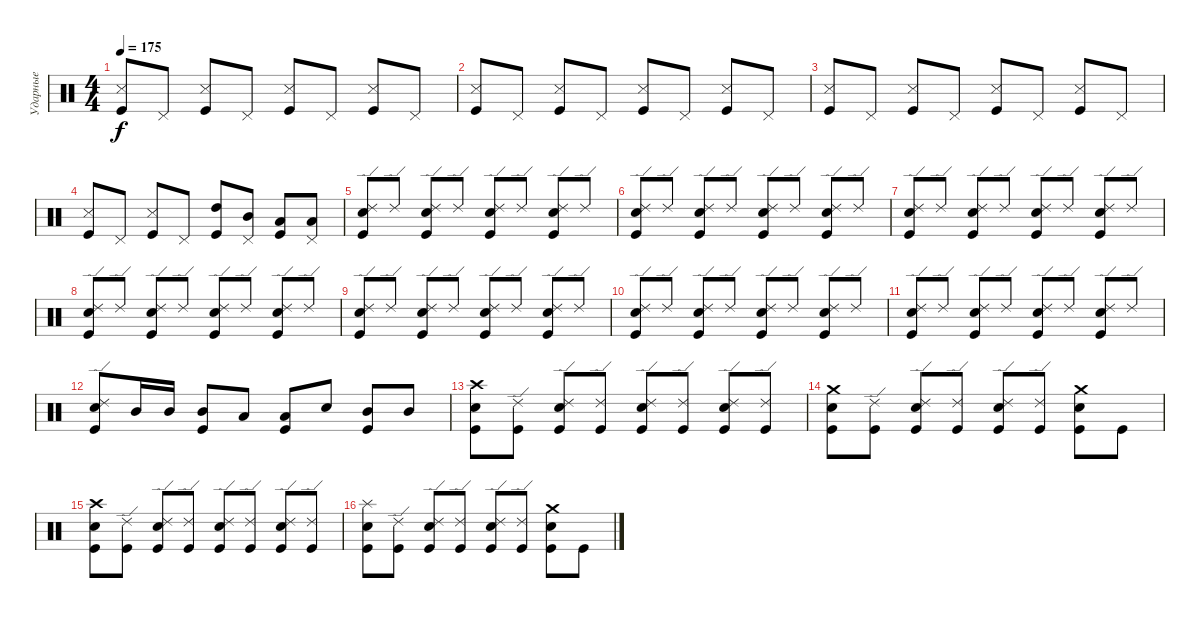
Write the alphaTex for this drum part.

\track ("Ударные" "Ударные") {instrument percussion}
\staff {score}
\articulation defaults
\ts (4 4)
\tempo 175
\clef neutral
\ks c
("Snare (side stick) 3" "Kick (hit)").8{dy f} "Pedal Hi-Hat (hit)".8 ("Snare (side stick) 3" "Kick (hit)").8 "Pedal Hi-Hat (hit)".8 ("Snare (side stick) 3" "Kick (hit)").8 "Pedal Hi-Hat (hit)".8 ("Snare (side stick) 3" "Kick (hit)").8 "Pedal Hi-Hat (hit)".8 |
("Snare (side stick) 3" "Kick (hit)").8 "Pedal Hi-Hat (hit)".8 ("Snare (side stick) 3" "Kick (hit)").8 "Pedal Hi-Hat (hit)".8 ("Snare (side stick) 3" "Kick (hit)").8 "Pedal Hi-Hat (hit)".8 ("Snare (side stick) 3" "Kick (hit)").8 "Pedal Hi-Hat (hit)".8 |
("Snare (side stick) 3" "Kick (hit)").8 "Pedal Hi-Hat (hit)".8 ("Snare (side stick) 3" "Kick (hit)").8 "Pedal Hi-Hat (hit)".8 ("Snare (side stick) 3" "Kick (hit)").8 "Pedal Hi-Hat (hit)".8 ("Snare (side stick) 3" "Kick (hit)").8 "Pedal Hi-Hat (hit)".8 |
("Snare (side stick) 3" "Kick (hit)").8 "Pedal Hi-Hat (hit)".8 ("Snare (side stick) 3" "Kick (hit)").8 "Pedal Hi-Hat (hit)".8 ("High Tom (hit)" "Kick (hit)").8 ("Pedal Hi-Hat (hit)" "Mid Tom (hit)").8 ("Low Tom (hit)" "Kick (hit)").8 ("Pedal Hi-Hat (hit)" "Low Tom (hit)").8 |
("Ride (edge) 2" "Snare (hit) 2" "Kick (hit)").8 "Ride (edge) 2".8 ("Ride (edge) 2" "Snare (hit) 2" "Kick (hit)").8 "Ride (edge) 2".8 ("Ride (edge) 2" "Snare (hit) 2" "Kick (hit)").8 "Ride (edge) 2".8 ("Ride (edge) 2" "Snare (hit) 2" "Kick (hit)").8 "Ride (edge) 2".8 |
("Ride (edge) 2" "Snare (hit) 2" "Kick (hit)").8 "Ride (edge) 2".8 ("Ride (edge) 2" "Snare (hit) 2" "Kick (hit)").8 "Ride (edge) 2".8 ("Ride (edge) 2" "Snare (hit) 2" "Kick (hit)").8 "Ride (edge) 2".8 ("Ride (edge) 2" "Snare (hit) 2" "Kick (hit)").8 "Ride (edge) 2".8 |
("Ride (edge) 2" "Snare (hit) 2" "Kick (hit)").8 "Ride (edge) 2".8 ("Ride (edge) 2" "Snare (hit) 2" "Kick (hit)").8 "Ride (edge) 2".8 ("Ride (edge) 2" "Snare (hit) 2" "Kick (hit)").8 "Ride (edge) 2".8 ("Ride (edge) 2" "Snare (hit) 2" "Kick (hit)").8 "Ride (edge) 2".8 |
("Ride (edge) 2" "Snare (hit) 2" "Kick (hit)").8 "Ride (edge) 2".8 ("Ride (edge) 2" "Snare (hit) 2" "Kick (hit)").8 "Ride (edge) 2".8 ("Ride (edge) 2" "Snare (hit) 2" "Kick (hit)").8 "Ride (edge) 2".8 ("Ride (edge) 2" "Snare (hit) 2" "Kick (hit)").8 "Ride (edge) 2".8 |
("Ride (edge) 2" "Snare (hit) 2" "Kick (hit)").8 "Ride (edge) 2".8 ("Ride (edge) 2" "Snare (hit) 2" "Kick (hit)").8 "Ride (edge) 2".8 ("Ride (edge) 2" "Snare (hit) 2" "Kick (hit)").8 "Ride (edge) 2".8 ("Ride (edge) 2" "Snare (hit) 2" "Kick (hit)").8 "Ride (edge) 2".8 |
("Ride (edge) 2" "Snare (hit) 2" "Kick (hit)").8 "Ride (edge) 2".8 ("Ride (edge) 2" "Snare (hit) 2" "Kick (hit)").8 "Ride (edge) 2".8 ("Ride (edge) 2" "Snare (hit) 2" "Kick (hit)").8 "Ride (edge) 2".8 ("Ride (edge) 2" "Snare (hit) 2" "Kick (hit)").8 "Ride (edge) 2".8 |
("Ride (edge) 2" "Snare (hit) 2" "Kick (hit)").8 "Ride (edge) 2".8 ("Ride (edge) 2" "Snare (hit) 2" "Kick (hit)").8 "Ride (edge) 2".8 ("Ride (edge) 2" "Snare (hit) 2" "Kick (hit)").8 "Ride (edge) 2".8 ("Ride (edge) 2" "Snare (hit) 2" "Kick (hit)").8 "Ride (edge) 2".8 |
("Ride (edge) 2" "Snare (hit) 2" "Kick (hit)").8 "Mid Tom (hit)".16 "Mid Tom (hit)".16 ("Mid Tom (hit)" "Kick (hit)").8 "Low Tom (hit)".8 ("Low Tom (hit)" "Kick (hit)").8 "Snare (hit) 2".8 ("Mid Tom (hit)" "Kick (hit)").8 "Mid Tom (hit)".8 |
("Crash high (hit)" "Snare (hit) 2" "Kick (hit)").8 ("Ride (edge) 2" "Kick (hit)").8 ("Ride (edge) 2" "Snare (hit) 2" "Kick (hit)").8 ("Ride (edge) 2" "Kick (hit)").8 ("Ride (edge) 2" "Snare (hit) 2" "Kick (hit)").8 ("Ride (edge) 2" "Kick (hit)").8 ("Ride (edge) 2" "Snare (hit) 2" "Kick (hit)").8 ("Ride (edge) 2" "Kick (hit)").8 |
("Crash medium (hit)" "Snare (hit) 2" "Kick (hit)").8 ("Ride (edge) 2" "Kick (hit)").8 ("Ride (edge) 2" "Snare (hit) 2" "Kick (hit)").8 ("Ride (edge) 2" "Kick (hit)").8 ("Ride (edge) 2" "Snare (hit) 2" "Kick (hit)").8 ("Ride (edge) 2" "Kick (hit)").8 ("Crash medium (hit)" "Snare (hit) 2" "Kick (hit)").8 "Kick (hit)".8 |
("Crash high (hit)" "Snare (hit) 2" "Kick (hit)").8 ("Ride (edge) 2" "Kick (hit)").8 ("Ride (edge) 2" "Snare (hit) 2" "Kick (hit)").8 ("Ride (edge) 2" "Kick (hit)").8 ("Ride (edge) 2" "Snare (hit) 2" "Kick (hit)").8 ("Ride (edge) 2" "Kick (hit)").8 ("Ride (edge) 2" "Snare (hit) 2" "Kick (hit)").8 ("Ride (edge) 2" "Kick (hit)").8 |
("Splash (hit)" "Snare (hit) 2" "Kick (hit)").8 ("Ride (edge) 2" "Kick (hit)").8 ("Ride (edge) 2" "Snare (hit) 2" "Kick (hit)").8 ("Ride (edge) 2" "Kick (hit)").8 ("Ride (edge) 2" "Snare (hit) 2" "Kick (hit)").8 ("Ride (edge) 2" "Kick (hit)").8 ("Crash medium (hit)" "Snare (hit) 2" "Kick (hit)").8 "Kick (hit)".8
